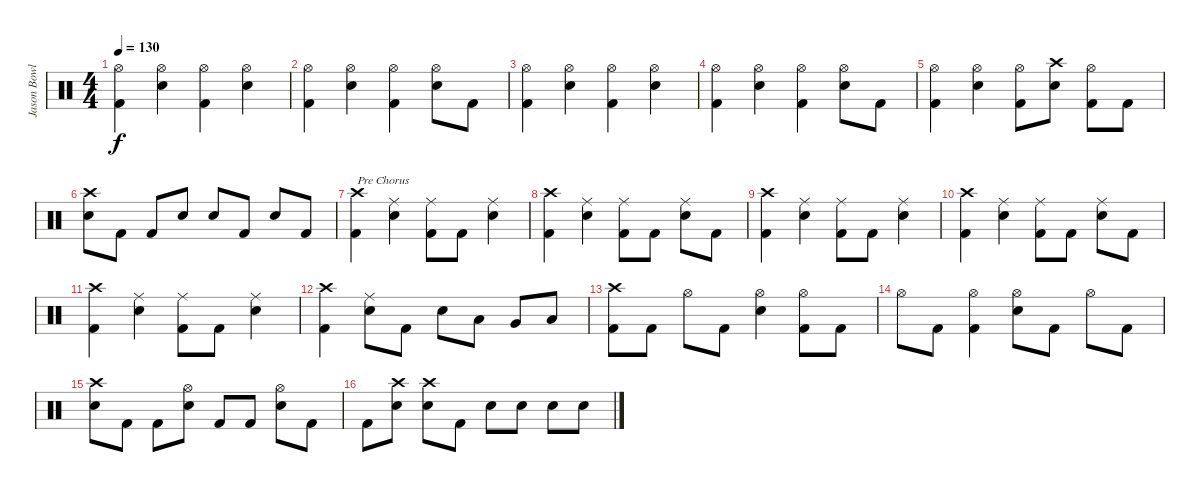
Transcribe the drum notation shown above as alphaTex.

\track ("Jason Bowld" "Jason Bowl") {instrument percussion}
\staff {score}
\articulation defaults
\ts (4 4)
\tempo 130
\clef neutral
\ks c
("Hi-Hat (open)" "Kick (hit) 2").4{dy f} ("Hi-Hat (open)" "Snare (hit) 2").4 ("Hi-Hat (open)" "Kick (hit) 2").4 ("Hi-Hat (open)" "Snare (hit) 2").4 |
("Hi-Hat (open)" "Kick (hit) 2").4 ("Hi-Hat (open)" "Snare (hit) 2").4 ("Hi-Hat (open)" "Kick (hit) 2").4 ("Hi-Hat (open)" "Snare (hit) 2").8 "Kick (hit) 2".8 |
("Hi-Hat (open)" "Kick (hit) 2").4 ("Hi-Hat (open)" "Snare (hit) 2").4 ("Hi-Hat (open)" "Kick (hit) 2").4 ("Hi-Hat (open)" "Snare (hit) 2").4 |
("Hi-Hat (open)" "Kick (hit) 2").4 ("Hi-Hat (open)" "Snare (hit) 2").4 ("Hi-Hat (open)" "Kick (hit) 2").4 ("Hi-Hat (open)" "Snare (hit) 2").8 "Kick (hit) 2".8 |
("Hi-Hat (open)" "Kick (hit) 2").4 ("Hi-Hat (open)" "Snare (hit) 2").4 ("Hi-Hat (open)" "Kick (hit) 2").8 ("Crash high (hit)" "Snare (hit) 2").8 ("Hi-Hat (open)" "Kick (hit) 2").8 "Kick (hit) 2".8 |
("Crash high (hit)" "Snare (hit) 2").8 "Kick (hit) 2".8 "Kick (hit) 2".8 "Snare (hit) 2".8 "Snare (hit) 2".8 "Kick (hit) 2".8 "Snare (hit) 2".8 "Kick (hit) 2".8 |
("Crash high (hit)" "Kick (hit) 2").4{txt "Pre Chorus"} ("Ride (middle)" "Snare (hit) 2").4 ("Ride (middle)" "Kick (hit) 2").8 "Kick (hit) 2".8 ("Ride (middle)" "Snare (hit) 2").4 |
("Crash high (hit)" "Kick (hit) 2").4 ("Ride (middle)" "Snare (hit) 2").4 ("Ride (middle)" "Kick (hit) 2").8 "Kick (hit) 2".8 ("Ride (middle)" "Snare (hit) 2").8 "Kick (hit) 2".8 |
("Crash high (hit)" "Kick (hit) 2").4 ("Ride (middle)" "Snare (hit) 2").4 ("Ride (middle)" "Kick (hit) 2").8 "Kick (hit) 2".8 ("Ride (middle)" "Snare (hit) 2").4 |
("Crash high (hit)" "Kick (hit) 2").4 ("Ride (middle)" "Snare (hit) 2").4 ("Ride (middle)" "Kick (hit) 2").8 "Kick (hit) 2".8 ("Ride (middle)" "Snare (hit) 2").8 "Kick (hit) 2".8 |
("Crash high (hit)" "Kick (hit) 2").4 ("Ride (middle)" "Snare (hit) 2").4 ("Ride (middle)" "Kick (hit) 2").8 "Kick (hit) 2".8 ("Ride (middle)" "Snare (hit) 2").4 |
("Crash high (hit)" "Kick (hit) 2").4 ("Ride (middle)" "Snare (hit) 2").8 "Kick (hit) 2".8 "Snare (hit) 2".8 "Low Tom (hit)".8 "Very Low Tom (hit)".8 "Low Floor Tom (hit)".8 |
("Crash high (hit)" "Kick (hit) 2").8 "Kick (hit) 2".8 "Hi-Hat (open)".8 "Kick (hit) 2".8 ("Hi-Hat (open)" "Snare (hit) 2").4 ("Hi-Hat (open)" "Kick (hit) 2").8 "Kick (hit) 2".8 |
"Hi-Hat (open)".8 "Kick (hit) 2".8 ("Hi-Hat (open)" "Kick (hit) 2").4 ("Hi-Hat (open)" "Snare (hit) 2").8 "Kick (hit) 2".8 "Hi-Hat (open)".8 "Kick (hit) 2".8 |
("Crash high (hit)" "Snare (hit) 2").8 "Kick (hit) 2".8 "Kick (hit) 2".8 ("Hi-Hat (open)" "Snare (hit) 2").8 "Kick (hit) 2".8 "Kick (hit) 2".8 ("Hi-Hat (open)" "Snare (hit) 2").8 "Kick (hit) 2".8 |
"Kick (hit) 2".8 ("Crash high (hit)" "Snare (hit) 2").8 ("Crash high (hit)" "Snare (hit) 2").8 "Kick (hit) 2".8 "Snare (hit) 2".8 "Snare (hit) 2".8 "Snare (hit) 2".8 "Snare (hit) 2".8
